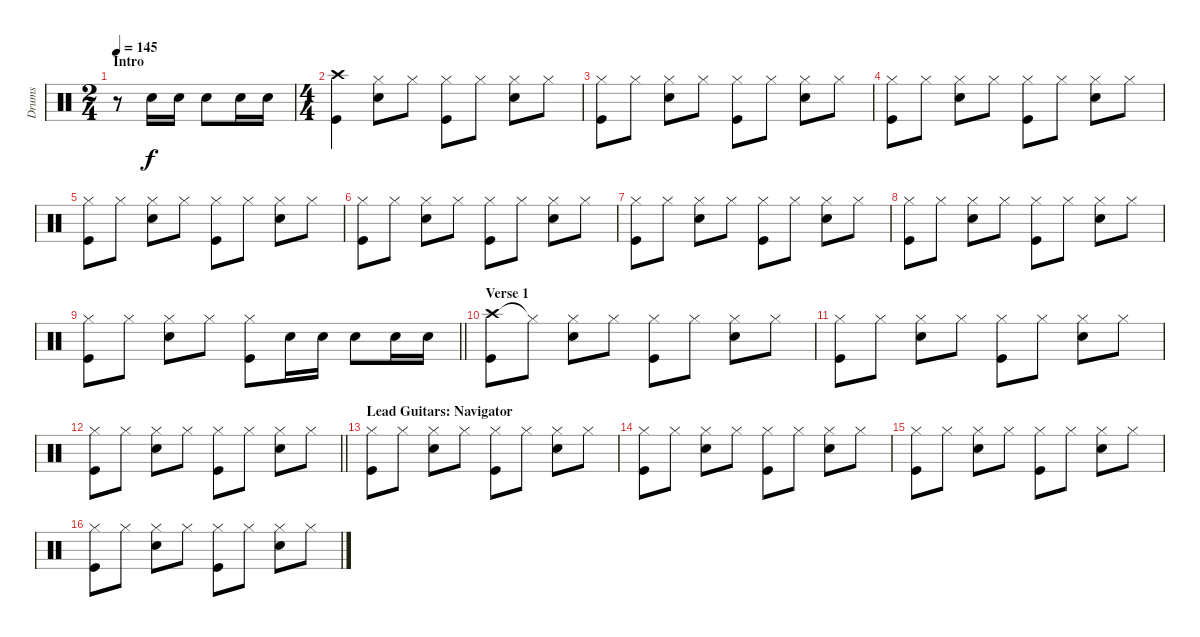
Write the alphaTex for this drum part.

\track ("Drums" "Drums") {instrument percussion}
\staff {score}
\articulation defaults
\ts (2 4)
\section ("" "Intro")
\tempo 145
\clef neutral
\ks c
r.8{dy f} "Electric Snare (hit)".16 "Electric Snare (hit)".16 "Electric Snare (hit)".8 "Electric Snare (hit)".16 "Electric Snare (hit)".16 |
\ts (4 4)
("Crash high (hit)" "Kick (hit)").4 ("Hi-Hat (closed)" "Electric Snare (hit)").8 "Hi-Hat (closed)".8 ("Hi-Hat (closed)" "Kick (hit)").8 "Hi-Hat (closed)".8 ("Hi-Hat (closed)" "Electric Snare (hit)").8 "Hi-Hat (closed)".8 |
("Hi-Hat (closed)" "Kick (hit)").8 "Hi-Hat (closed)".8 ("Hi-Hat (closed)" "Electric Snare (hit)").8 "Hi-Hat (closed)".8 ("Hi-Hat (closed)" "Kick (hit)").8 "Hi-Hat (closed)".8 ("Hi-Hat (closed)" "Electric Snare (hit)").8 "Hi-Hat (closed)".8 |
("Hi-Hat (closed)" "Kick (hit)").8 "Hi-Hat (closed)".8 ("Hi-Hat (closed)" "Electric Snare (hit)").8 "Hi-Hat (closed)".8 ("Hi-Hat (closed)" "Kick (hit)").8 "Hi-Hat (closed)".8 ("Hi-Hat (closed)" "Electric Snare (hit)").8 "Hi-Hat (closed)".8 |
("Hi-Hat (closed)" "Kick (hit)").8 "Hi-Hat (closed)".8 ("Hi-Hat (closed)" "Electric Snare (hit)").8 "Hi-Hat (closed)".8 ("Hi-Hat (closed)" "Kick (hit)").8 "Hi-Hat (closed)".8 ("Hi-Hat (closed)" "Electric Snare (hit)").8 "Hi-Hat (closed)".8 |
("Hi-Hat (closed)" "Kick (hit)").8 "Hi-Hat (closed)".8 ("Hi-Hat (closed)" "Electric Snare (hit)").8 "Hi-Hat (closed)".8 ("Hi-Hat (closed)" "Kick (hit)").8 "Hi-Hat (closed)".8 ("Hi-Hat (closed)" "Electric Snare (hit)").8 "Hi-Hat (closed)".8 |
("Hi-Hat (closed)" "Kick (hit)").8 "Hi-Hat (closed)".8 ("Hi-Hat (closed)" "Electric Snare (hit)").8 "Hi-Hat (closed)".8 ("Hi-Hat (closed)" "Kick (hit)").8 "Hi-Hat (closed)".8 ("Hi-Hat (closed)" "Electric Snare (hit)").8 "Hi-Hat (closed)".8 |
("Hi-Hat (closed)" "Kick (hit)").8 "Hi-Hat (closed)".8 ("Hi-Hat (closed)" "Electric Snare (hit)").8 "Hi-Hat (closed)".8 ("Hi-Hat (closed)" "Kick (hit)").8 "Hi-Hat (closed)".8 ("Hi-Hat (closed)" "Electric Snare (hit)").8 "Hi-Hat (closed)".8 |
\barLineRight lightlight
("Hi-Hat (closed)" "Kick (hit)").8 "Hi-Hat (closed)".8 ("Hi-Hat (closed)" "Electric Snare (hit)").8 "Hi-Hat (closed)".8 ("Hi-Hat (closed)" "Kick (hit)").8 "Electric Snare (hit)".16 "Electric Snare (hit)".16 "Electric Snare (hit)".8 "Electric Snare (hit)".16 "Electric Snare (hit)".16 |
\section ("" "Verse 1")
("Crash high (hit)" "Kick (hit)").8 "Hi-Hat (closed)"{t}.8 ("Hi-Hat (closed)" "Electric Snare (hit)").8 "Hi-Hat (closed)".8 ("Hi-Hat (closed)" "Kick (hit)").8 "Hi-Hat (closed)".8 ("Hi-Hat (closed)" "Electric Snare (hit)").8 "Hi-Hat (closed)".8 |
("Hi-Hat (closed)" "Kick (hit)").8 "Hi-Hat (closed)".8 ("Hi-Hat (closed)" "Electric Snare (hit)").8 "Hi-Hat (closed)".8 ("Hi-Hat (closed)" "Kick (hit)").8 "Hi-Hat (closed)".8 ("Hi-Hat (closed)" "Electric Snare (hit)").8 "Hi-Hat (closed)".8 |
\barLineRight lightlight
("Hi-Hat (closed)" "Kick (hit)").8 "Hi-Hat (closed)".8 ("Hi-Hat (closed)" "Electric Snare (hit)").8 "Hi-Hat (closed)".8 ("Hi-Hat (closed)" "Kick (hit)").8 "Hi-Hat (closed)".8 ("Hi-Hat (closed)" "Electric Snare (hit)").8 "Hi-Hat (closed)".8 |
\section ("" "Lead Guitars: Navigator")
("Hi-Hat (closed)" "Kick (hit)").8 "Hi-Hat (closed)".8 ("Hi-Hat (closed)" "Electric Snare (hit)").8 "Hi-Hat (closed)".8 ("Hi-Hat (closed)" "Kick (hit)").8 "Hi-Hat (closed)".8 ("Hi-Hat (closed)" "Electric Snare (hit)").8 "Hi-Hat (closed)".8 |
("Hi-Hat (closed)" "Kick (hit)").8 "Hi-Hat (closed)".8 ("Hi-Hat (closed)" "Electric Snare (hit)").8 "Hi-Hat (closed)".8 ("Hi-Hat (closed)" "Kick (hit)").8 "Hi-Hat (closed)".8 ("Hi-Hat (closed)" "Electric Snare (hit)").8 "Hi-Hat (closed)".8 |
("Hi-Hat (closed)" "Kick (hit)").8 "Hi-Hat (closed)".8 ("Hi-Hat (closed)" "Electric Snare (hit)").8 "Hi-Hat (closed)".8 ("Hi-Hat (closed)" "Kick (hit)").8 "Hi-Hat (closed)".8 ("Hi-Hat (closed)" "Electric Snare (hit)").8 "Hi-Hat (closed)".8 |
("Hi-Hat (closed)" "Kick (hit)").8 "Hi-Hat (closed)".8 ("Hi-Hat (closed)" "Electric Snare (hit)").8 "Hi-Hat (closed)".8 ("Hi-Hat (closed)" "Kick (hit)").8 "Hi-Hat (closed)".8 ("Hi-Hat (closed)" "Electric Snare (hit)").8 "Hi-Hat (closed)".8
